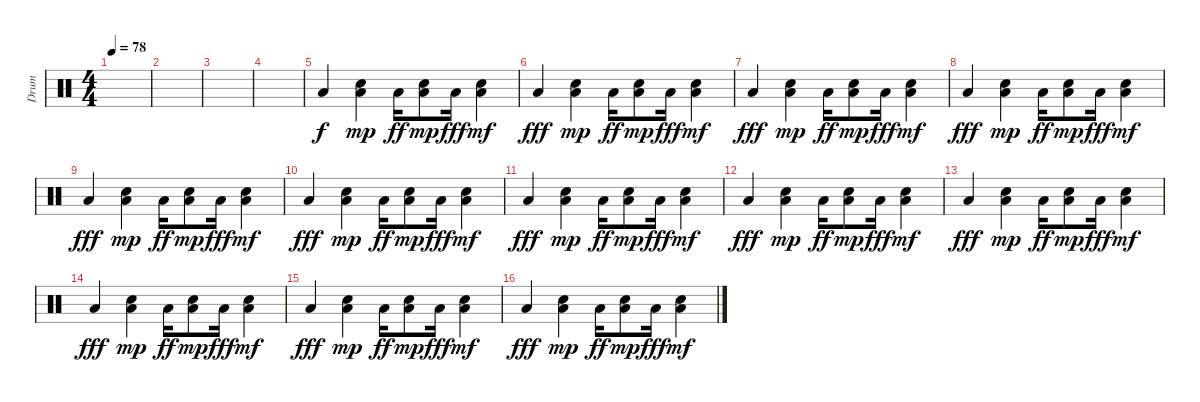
\track ("Drum" "Drum") {instrument percussion}
\staff {score}
\articulation defaults
\ts (4 4)
\tempo 78
\clef neutral
\ks c
|
|
|
|
"Low Floor Tom (hit)".4 ("Electric Snare (hit)" "Low Floor Tom (hit)").4{dy mp} "Low Floor Tom (hit)".16{dy ff} ("Electric Snare (hit)" "Low Floor Tom (hit)").8{dy mp} "Low Floor Tom (hit)".16{dy fff} ("Electric Snare (hit)" "Low Floor Tom (hit)").4{dy mf} |
"Low Floor Tom (hit)".4{dy fff} ("Electric Snare (hit)" "Low Floor Tom (hit)").4{dy mp} "Low Floor Tom (hit)".16{dy ff} ("Electric Snare (hit)" "Low Floor Tom (hit)").8{dy mp} "Low Floor Tom (hit)".16{dy fff} ("Electric Snare (hit)" "Low Floor Tom (hit)").4{dy mf} |
"Low Floor Tom (hit)".4{dy fff} ("Electric Snare (hit)" "Low Floor Tom (hit)").4{dy mp} "Low Floor Tom (hit)".16{dy ff} ("Electric Snare (hit)" "Low Floor Tom (hit)").8{dy mp} "Low Floor Tom (hit)".16{dy fff} ("Electric Snare (hit)" "Low Floor Tom (hit)").4{dy mf} |
"Low Floor Tom (hit)".4{dy fff} ("Electric Snare (hit)" "Low Floor Tom (hit)").4{dy mp} "Low Floor Tom (hit)".16{dy ff} ("Electric Snare (hit)" "Low Floor Tom (hit)").8{dy mp} "Low Floor Tom (hit)".16{dy fff} ("Electric Snare (hit)" "Low Floor Tom (hit)").4{dy mf} |
"Low Floor Tom (hit)".4{dy fff} ("Electric Snare (hit)" "Low Floor Tom (hit)").4{dy mp} "Low Floor Tom (hit)".16{dy ff} ("Electric Snare (hit)" "Low Floor Tom (hit)").8{dy mp} "Low Floor Tom (hit)".16{dy fff} ("Electric Snare (hit)" "Low Floor Tom (hit)").4{dy mf} |
"Low Floor Tom (hit)".4{dy fff} ("Electric Snare (hit)" "Low Floor Tom (hit)").4{dy mp} "Low Floor Tom (hit)".16{dy ff} ("Electric Snare (hit)" "Low Floor Tom (hit)").8{dy mp} "Low Floor Tom (hit)".16{dy fff} ("Electric Snare (hit)" "Low Floor Tom (hit)").4{dy mf} |
"Low Floor Tom (hit)".4{dy fff} ("Electric Snare (hit)" "Low Floor Tom (hit)").4{dy mp} "Low Floor Tom (hit)".16{dy ff} ("Electric Snare (hit)" "Low Floor Tom (hit)").8{dy mp} "Low Floor Tom (hit)".16{dy fff} ("Electric Snare (hit)" "Low Floor Tom (hit)").4{dy mf} |
"Low Floor Tom (hit)".4{dy fff} ("Electric Snare (hit)" "Low Floor Tom (hit)").4{dy mp} "Low Floor Tom (hit)".16{dy ff} ("Electric Snare (hit)" "Low Floor Tom (hit)").8{dy mp} "Low Floor Tom (hit)".16{dy fff} ("Electric Snare (hit)" "Low Floor Tom (hit)").4{dy mf} |
"Low Floor Tom (hit)".4{dy fff} ("Electric Snare (hit)" "Low Floor Tom (hit)").4{dy mp} "Low Floor Tom (hit)".16{dy ff} ("Electric Snare (hit)" "Low Floor Tom (hit)").8{dy mp} "Low Floor Tom (hit)".16{dy fff} ("Electric Snare (hit)" "Low Floor Tom (hit)").4{dy mf} |
"Low Floor Tom (hit)".4{dy fff} ("Electric Snare (hit)" "Low Floor Tom (hit)").4{dy mp} "Low Floor Tom (hit)".16{dy ff} ("Electric Snare (hit)" "Low Floor Tom (hit)").8{dy mp} "Low Floor Tom (hit)".16{dy fff} ("Electric Snare (hit)" "Low Floor Tom (hit)").4{dy mf} |
"Low Floor Tom (hit)".4{dy fff} ("Electric Snare (hit)" "Low Floor Tom (hit)").4{dy mp} "Low Floor Tom (hit)".16{dy ff} ("Electric Snare (hit)" "Low Floor Tom (hit)").8{dy mp} "Low Floor Tom (hit)".16{dy fff} ("Electric Snare (hit)" "Low Floor Tom (hit)").4{dy mf} |
"Low Floor Tom (hit)".4{dy fff} ("Electric Snare (hit)" "Low Floor Tom (hit)").4{dy mp} "Low Floor Tom (hit)".16{dy ff} ("Electric Snare (hit)" "Low Floor Tom (hit)").8{dy mp} "Low Floor Tom (hit)".16{dy fff} ("Electric Snare (hit)" "Low Floor Tom (hit)").4{dy mf}
